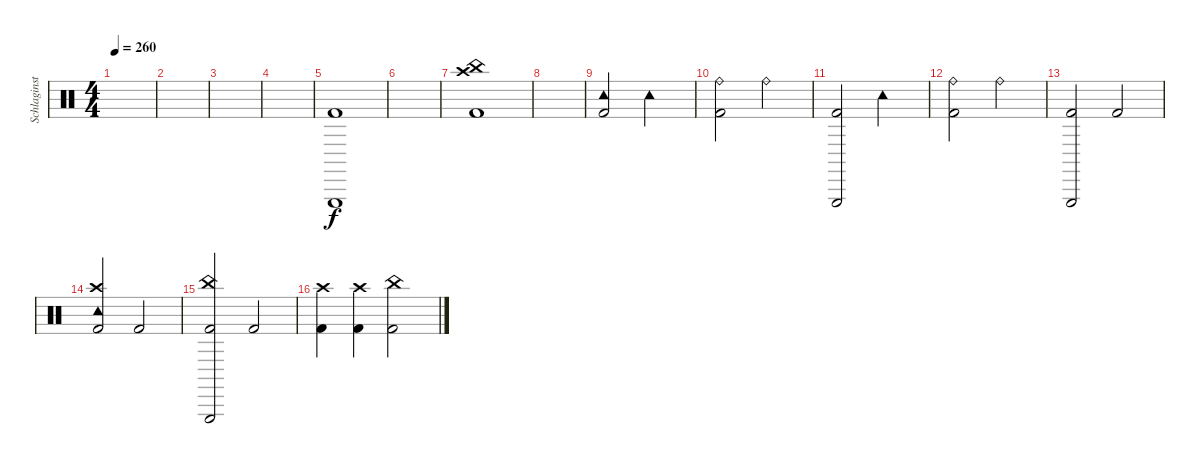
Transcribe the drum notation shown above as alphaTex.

\track ("Schlaginstrumente - Auswahl" "Schlaginst") {instrument percussion}
\staff {score}
\articulation defaults
\ts (4 4)
\tempo 260
\clef neutral
\ks c
|
|
|
|
("Triangle (hit)" "Kick (hit) 2").1 |
|
("China (hit)" "Crash high (hit)" "Kick (hit) 2").1 |
|
("Tambourine (hit)" "Kick (hit) 2").2 "Tambourine (hit)".2 |
("Ride (bell)" "Kick (hit) 2").2 "Ride (bell)".2 |
("Triangle (hit)" "Kick (hit) 2").2 "Tambourine (hit)".2 |
("Ride (bell)" "Kick (hit) 2").2 "Ride (bell)".2 |
("Triangle (hit)" "Kick (hit) 2").2 "Kick (hit) 2".2 |
("Tambourine (hit)" "Crash high (hit)" "Kick (hit) 2").2 "Kick (hit) 2".2 |
("Triangle (hit)" "China (hit)" "Kick (hit) 2").2 "Kick (hit) 2".2 |
("Crash high (hit)" "Kick (hit) 2").4 ("Crash high (hit)" "Kick (hit) 2").4 ("China (hit)" "Kick (hit) 2").2
